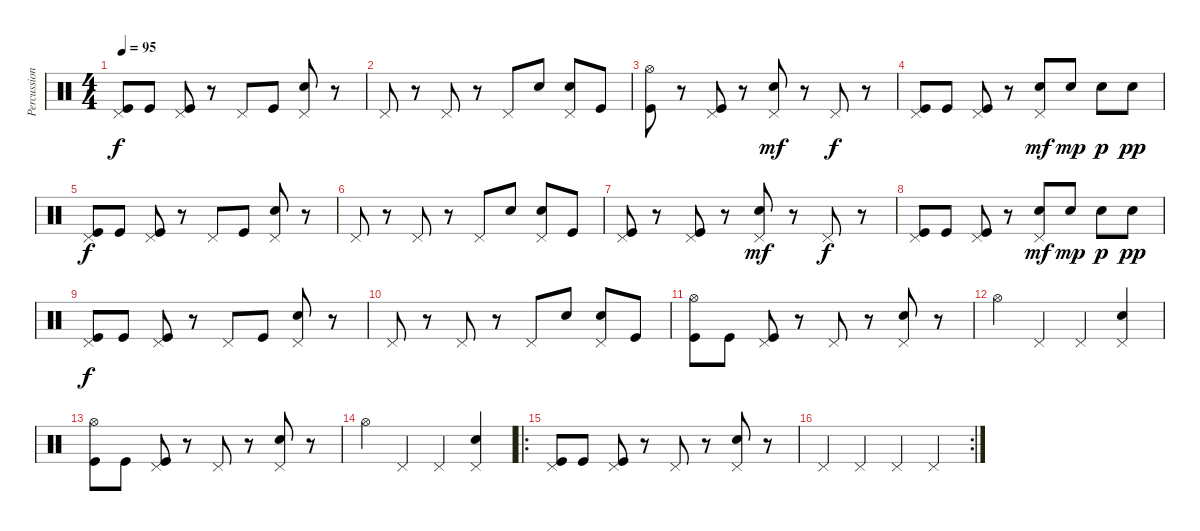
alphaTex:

\track ("Percussion" "Percussion") {instrument percussion}
\staff {score}
\articulation defaults
\ts (4 4)
\tempo 95
\clef neutral
\ks c
("Pedal Hi-Hat (hit)" "Kick (hit)").8{dy f} "Kick (hit)".8 ("Pedal Hi-Hat (hit)" "Kick (hit)").8 r.8 "Pedal Hi-Hat (hit)".8 "Kick (hit)".8 ("Pedal Hi-Hat (hit)" "Electric Snare (hit)").8 r.8 |
"Pedal Hi-Hat (hit)".8 r.8 "Pedal Hi-Hat (hit)".8 r.8 "Pedal Hi-Hat (hit)".8 "Electric Snare (hit)".8 ("Pedal Hi-Hat (hit)" "Electric Snare (hit)").8 "Kick (hit)".8 |
("Hi-Hat (open)" "Kick (hit)").8 r.8 ("Pedal Hi-Hat (hit)" "Kick (hit)").8 r.8 ("Pedal Hi-Hat (hit)" "Electric Snare (hit)").8{dy mf} r.8 "Pedal Hi-Hat (hit)".8{dy f} r.8 |
("Pedal Hi-Hat (hit)" "Kick (hit)").8 "Kick (hit)".8 ("Pedal Hi-Hat (hit)" "Kick (hit)").8 r.8 ("Pedal Hi-Hat (hit)" "Electric Snare (hit)").8{dy mf} "Electric Snare (hit)".8{dy mp} "Electric Snare (hit)".8{dy p} "Electric Snare (hit)".8{dy pp} |
("Pedal Hi-Hat (hit)" "Kick (hit)").8{dy f} "Kick (hit)".8 ("Pedal Hi-Hat (hit)" "Kick (hit)").8 r.8 "Pedal Hi-Hat (hit)".8 "Kick (hit)".8 ("Pedal Hi-Hat (hit)" "Electric Snare (hit)").8 r.8 |
"Pedal Hi-Hat (hit)".8 r.8 "Pedal Hi-Hat (hit)".8 r.8 "Pedal Hi-Hat (hit)".8 "Electric Snare (hit)".8 ("Pedal Hi-Hat (hit)" "Electric Snare (hit)").8 "Kick (hit)".8 |
("Pedal Hi-Hat (hit)" "Kick (hit)").8 r.8 ("Pedal Hi-Hat (hit)" "Kick (hit)").8 r.8 ("Pedal Hi-Hat (hit)" "Electric Snare (hit)").8{dy mf} r.8 "Pedal Hi-Hat (hit)".8{dy f} r.8 |
("Pedal Hi-Hat (hit)" "Kick (hit)").8 "Kick (hit)".8 ("Pedal Hi-Hat (hit)" "Kick (hit)").8 r.8 ("Pedal Hi-Hat (hit)" "Electric Snare (hit)").8{dy mf} "Electric Snare (hit)".8{dy mp} "Electric Snare (hit)".8{dy p} "Electric Snare (hit)".8{dy pp} |
("Pedal Hi-Hat (hit)" "Kick (hit)").8{dy f} "Kick (hit)".8 ("Pedal Hi-Hat (hit)" "Kick (hit)").8 r.8 "Pedal Hi-Hat (hit)".8 "Kick (hit)".8 ("Pedal Hi-Hat (hit)" "Electric Snare (hit)").8 r.8 |
"Pedal Hi-Hat (hit)".8 r.8 "Pedal Hi-Hat (hit)".8 r.8 "Pedal Hi-Hat (hit)".8 "Electric Snare (hit)".8 ("Pedal Hi-Hat (hit)" "Electric Snare (hit)").8 "Kick (hit)".8 |
("Hi-Hat (open)" "Kick (hit)").8 "Kick (hit)".8 ("Pedal Hi-Hat (hit)" "Kick (hit)").8 r.8 "Pedal Hi-Hat (hit)".8 r.8 ("Pedal Hi-Hat (hit)" "Electric Snare (hit)").8 r.8 |
"Hi-Hat (open)".4 "Pedal Hi-Hat (hit)".4 "Pedal Hi-Hat (hit)".4 ("Pedal Hi-Hat (hit)" "Electric Snare (hit)").4 |
("Hi-Hat (open)" "Kick (hit)").8 "Kick (hit)".8 ("Pedal Hi-Hat (hit)" "Kick (hit)").8 r.8 "Pedal Hi-Hat (hit)".8 r.8 ("Pedal Hi-Hat (hit)" "Electric Snare (hit)").8 r.8 |
"Hi-Hat (open)".4 "Pedal Hi-Hat (hit)".4 "Pedal Hi-Hat (hit)".4 ("Pedal Hi-Hat (hit)" "Electric Snare (hit)").4 |
\ro
("Pedal Hi-Hat (hit)" "Kick (hit)").8 "Kick (hit)".8 ("Pedal Hi-Hat (hit)" "Kick (hit)").8 r.8 "Pedal Hi-Hat (hit)".8 r.8 ("Pedal Hi-Hat (hit)" "Electric Snare (hit)").8 r.8 |
\rc 2 "Pedal Hi-Hat (hit)".4 "Pedal Hi-Hat (hit)".4 "Pedal Hi-Hat (hit)".4 "Pedal Hi-Hat (hit)".4
